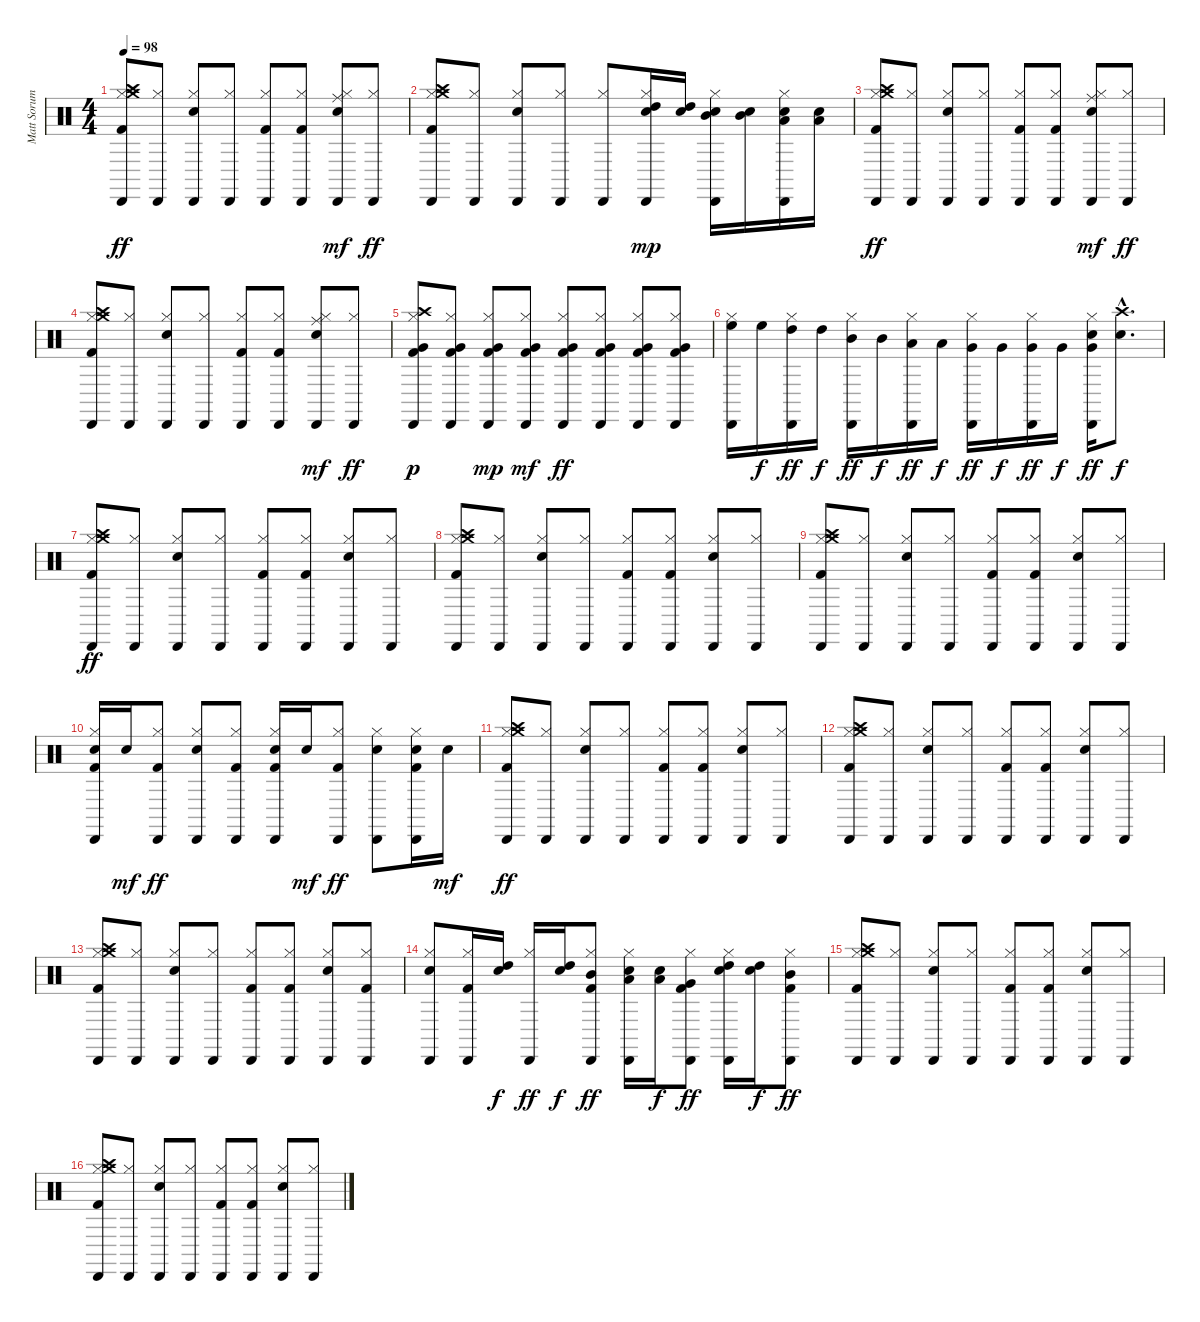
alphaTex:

\track ("Matt Sorum" "Matt Sorum") {instrument percussion}
\staff {score}
\articulation defaults
\ts (4 4)
\tempo 98
\clef neutral
\ks c
("Kick (hit) 2" "Hi-Hat (closed)" "Cabasa (hit)" "Crash medium (hit)" "Crash high (hit)").8{dy ff} ("Hi-Hat (closed)" "Cabasa (hit)").8 ("Snare (hit) 2" "Hi-Hat (closed)" "Cabasa (hit)").8 ("Hi-Hat (closed)" "Cabasa (hit)").8 ("Kick (hit) 2" "Hi-Hat (closed)" "Cabasa (hit)").8 ("Kick (hit) 2" "Hi-Hat (closed)" "Cabasa (hit)").8 ("Snare (hit) 2" "Hi-Hat (closed)" "Cabasa (hit)" "Ride (middle)").8{dy mf} ("Hi-Hat (closed)" "Cabasa (hit)").8{dy ff} |
("Kick (hit) 2" "Hi-Hat (closed)" "Cabasa (hit)" "Crash medium (hit)" "Crash high (hit)").8 ("Hi-Hat (closed)" "Cabasa (hit)").8 ("Snare (hit) 2" "Hi-Hat (closed)" "Cabasa (hit)").8 ("Hi-Hat (closed)" "Cabasa (hit)").8 ("Hi-Hat (closed)" "Cabasa (hit)").8 ("High Tom (hit)" "Hi-Hat (closed)" "Cabasa (hit)" "Snare (hit) 2").16{dy mp} ("High Tom (hit)" "Snare (hit) 2").16 ("Mid Tom (hit)" "Hi-Hat (closed)" "Cabasa (hit)" "Snare (hit) 2").16 ("Mid Tom (hit)" "Snare (hit) 2").16 ("Low Tom (hit)" "Hi-Hat (closed)" "Cabasa (hit)" "Snare (hit) 2").16 ("Low Tom (hit)" "Snare (hit) 2").16 |
("Kick (hit) 2" "Hi-Hat (closed)" "Cabasa (hit)" "Crash medium (hit)" "Crash high (hit)").8{dy ff volume 16} ("Hi-Hat (closed)" "Cabasa (hit)").8 ("Snare (hit) 2" "Hi-Hat (closed)" "Cabasa (hit)").8 ("Hi-Hat (closed)" "Cabasa (hit)").8 ("Kick (hit) 2" "Hi-Hat (closed)" "Cabasa (hit)").8 ("Kick (hit) 2" "Hi-Hat (closed)" "Cabasa (hit)").8 ("Snare (hit) 2" "Hi-Hat (closed)" "Cabasa (hit)" "Ride (middle)").8{dy mf} ("Hi-Hat (closed)" "Cabasa (hit)").8{dy ff} |
("Kick (hit) 2" "Hi-Hat (closed)" "Cabasa (hit)" "Crash medium (hit)" "Crash high (hit)").8 ("Hi-Hat (closed)" "Cabasa (hit)").8 ("Snare (hit) 2" "Hi-Hat (closed)" "Cabasa (hit)").8 ("Hi-Hat (closed)" "Cabasa (hit)").8 ("Kick (hit) 2" "Hi-Hat (closed)" "Cabasa (hit)").8 ("Kick (hit) 2" "Hi-Hat (closed)" "Cabasa (hit)").8 ("Snare (hit) 2" "Hi-Hat (closed)" "Cabasa (hit)" "Ride (middle)").8{dy mf} ("Hi-Hat (closed)" "Cabasa (hit)").8{dy ff} |
("Kick (hit) 2" "Hi-Hat (closed)" "Cabasa (hit)" "Crash high (hit)" "Very Low Tom (hit)").8{dy p} ("Kick (hit) 2" "Hi-Hat (closed)" "Cabasa (hit)" "Very Low Tom (hit)").8 ("Kick (hit) 2" "Hi-Hat (closed)" "Cabasa (hit)" "Very Low Tom (hit)").8{dy mp} ("Kick (hit) 2" "Hi-Hat (closed)" "Cabasa (hit)" "Very Low Tom (hit)").8{dy mf} ("Kick (hit) 2" "Hi-Hat (closed)" "Cabasa (hit)" "Very Low Tom (hit)").8{dy ff} ("Kick (hit) 2" "Hi-Hat (closed)" "Cabasa (hit)" "Very Low Tom (hit)").8 ("Kick (hit) 2" "Hi-Hat (closed)" "Cabasa (hit)" "Very Low Tom (hit)").8 ("Kick (hit) 2" "Hi-Hat (closed)" "Cabasa (hit)" "Very Low Tom (hit)").8 |
("High Floor Tom (hit)" "Hi-Hat (closed)" "Cabasa (hit)").16 "High Floor Tom (hit)".16{dy f} ("High Tom (hit)" "Hi-Hat (closed)" "Cabasa (hit)").16{dy ff} "High Tom (hit)".16{dy f} ("Mid Tom (hit)" "Hi-Hat (closed)" "Cabasa (hit)").16{dy ff} "Mid Tom (hit)".16{dy f} ("Low Tom (hit)" "Hi-Hat (closed)" "Cabasa (hit)").16{dy ff} "Low Tom (hit)".16{dy f} ("Very Low Tom (hit)" "Hi-Hat (closed)" "Cabasa (hit)").16{dy ff} "Very Low Tom (hit)".16{dy f} ("Very Low Tom (hit)" "Hi-Hat (closed)" "Cabasa (hit)").16{dy ff} "Very Low Tom (hit)".16{dy f} ("Snare (hit) 2" "Very Low Tom (hit)" "Hi-Hat (closed)" "Cabasa (hit)").16{dy ff} ("Snare (hit) 2"{hac} "Crash high (hit)"{hac}).8{d dy f} |
("Kick (hit) 2" "Hi-Hat (closed)" "Cabasa (hit)" "Crash medium (hit)" "Crash high (hit)").8{dy ff volume 16} ("Hi-Hat (closed)" "Cabasa (hit)").8 ("Snare (hit) 2" "Hi-Hat (closed)" "Cabasa (hit)").8 ("Hi-Hat (closed)" "Cabasa (hit)").8 ("Kick (hit) 2" "Hi-Hat (closed)" "Cabasa (hit)").8 ("Kick (hit) 2" "Hi-Hat (closed)" "Cabasa (hit)").8 ("Snare (hit) 2" "Hi-Hat (closed)" "Cabasa (hit)").8 ("Hi-Hat (closed)" "Cabasa (hit)").8 |
("Kick (hit) 2" "Hi-Hat (closed)" "Cabasa (hit)" "Crash medium (hit)" "Crash high (hit)").8 ("Hi-Hat (closed)" "Cabasa (hit)").8 ("Snare (hit) 2" "Hi-Hat (closed)" "Cabasa (hit)").8 ("Hi-Hat (closed)" "Cabasa (hit)").8 ("Kick (hit) 2" "Hi-Hat (closed)" "Cabasa (hit)").8 ("Kick (hit) 2" "Hi-Hat (closed)" "Cabasa (hit)").8 ("Snare (hit) 2" "Hi-Hat (closed)" "Cabasa (hit)").8 ("Hi-Hat (closed)" "Cabasa (hit)").8 |
("Kick (hit) 2" "Hi-Hat (closed)" "Cabasa (hit)" "Crash medium (hit)" "Crash high (hit)").8 ("Hi-Hat (closed)" "Cabasa (hit)").8 ("Snare (hit) 2" "Hi-Hat (closed)" "Cabasa (hit)").8 ("Hi-Hat (closed)" "Cabasa (hit)").8 ("Kick (hit) 2" "Hi-Hat (closed)" "Cabasa (hit)").8 ("Kick (hit) 2" "Hi-Hat (closed)" "Cabasa (hit)").8 ("Snare (hit) 2" "Hi-Hat (closed)" "Cabasa (hit)").8 ("Hi-Hat (closed)" "Cabasa (hit)").8 |
("Kick (hit) 2" "Snare (hit) 2" "Hi-Hat (closed)" "Cabasa (hit)").16 "Snare (hit) 2".16{dy mf} ("Kick (hit) 2" "Hi-Hat (closed)" "Cabasa (hit)").8{dy ff} ("Snare (hit) 2" "Hi-Hat (closed)" "Cabasa (hit)").8 ("Kick (hit) 2" "Hi-Hat (closed)" "Cabasa (hit)").8 ("Kick (hit) 2" "Snare (hit) 2" "Hi-Hat (closed)" "Cabasa (hit)").16 "Snare (hit) 2".16{dy mf} ("Kick (hit) 2" "Hi-Hat (closed)" "Cabasa (hit)").8{dy ff} ("Snare (hit) 2" "Hi-Hat (closed)" "Cabasa (hit)").8 ("Kick (hit) 2" "Snare (hit) 2" "Hi-Hat (closed)" "Cabasa (hit)").16 "Snare (hit) 2".16{dy mf} |
("Kick (hit) 2" "Hi-Hat (closed)" "Cabasa (hit)" "Crash medium (hit)" "Crash high (hit)").8{dy ff volume 16} ("Hi-Hat (closed)" "Cabasa (hit)").8 ("Snare (hit) 2" "Hi-Hat (closed)" "Cabasa (hit)").8 ("Hi-Hat (closed)" "Cabasa (hit)").8 ("Kick (hit) 2" "Hi-Hat (closed)" "Cabasa (hit)").8 ("Kick (hit) 2" "Hi-Hat (closed)" "Cabasa (hit)").8 ("Snare (hit) 2" "Hi-Hat (closed)" "Cabasa (hit)").8 ("Hi-Hat (closed)" "Cabasa (hit)").8 |
("Kick (hit) 2" "Hi-Hat (closed)" "Cabasa (hit)" "Crash medium (hit)" "Crash high (hit)").8 ("Hi-Hat (closed)" "Cabasa (hit)").8 ("Snare (hit) 2" "Hi-Hat (closed)" "Cabasa (hit)").8 ("Hi-Hat (closed)" "Cabasa (hit)").8 ("Kick (hit) 2" "Hi-Hat (closed)" "Cabasa (hit)").8 ("Kick (hit) 2" "Hi-Hat (closed)" "Cabasa (hit)").8 ("Snare (hit) 2" "Hi-Hat (closed)" "Cabasa (hit)").8 ("Hi-Hat (closed)" "Cabasa (hit)").8 |
("Kick (hit) 2" "Hi-Hat (closed)" "Cabasa (hit)" "Crash medium (hit)" "Crash high (hit)").8 ("Hi-Hat (closed)" "Cabasa (hit)").8 ("Snare (hit) 2" "Hi-Hat (closed)" "Cabasa (hit)").8 ("Hi-Hat (closed)" "Cabasa (hit)").8 ("Kick (hit) 2" "Hi-Hat (closed)" "Cabasa (hit)").8 ("Kick (hit) 2" "Hi-Hat (closed)" "Cabasa (hit)").8 ("Snare (hit) 2" "Hi-Hat (closed)" "Cabasa (hit)").8 ("Kick (hit) 2" "Hi-Hat (closed)" "Cabasa (hit)").8 |
("Snare (hit) 2" "Hi-Hat (closed)" "Cabasa (hit)").8 ("Kick (hit) 2" "Hi-Hat (closed)" "Cabasa (hit)").16 ("Snare (hit) 2" "High Tom (hit)").16{dy f} ("Hi-Hat (closed)" "Cabasa (hit)").16{dy ff} ("Snare (hit) 2" "High Tom (hit)").16{dy f} ("Kick (hit) 2" "Mid Tom (hit)" "Hi-Hat (closed)" "Cabasa (hit)").8{dy ff} ("Snare (hit) 2" "Low Tom (hit)" "Hi-Hat (closed)" "Cabasa (hit)").16 ("Snare (hit) 2" "Low Tom (hit)").16{dy f} ("Kick (hit) 2" "Very Low Tom (hit)" "Hi-Hat (closed)" "Cabasa (hit)").8{dy ff} ("Snare (hit) 2" "High Tom (hit)" "Hi-Hat (closed)" "Cabasa (hit)").16 ("Snare (hit) 2" "High Tom (hit)").16{dy f} ("Kick (hit) 2" "Mid Tom (hit)" "Hi-Hat (closed)" "Cabasa (hit)").8{dy ff} |
("Kick (hit) 2" "Hi-Hat (closed)" "Cabasa (hit)" "Crash medium (hit)" "Crash high (hit)").8{volume 16} ("Hi-Hat (closed)" "Cabasa (hit)").8 ("Snare (hit) 2" "Hi-Hat (closed)" "Cabasa (hit)").8 ("Hi-Hat (closed)" "Cabasa (hit)").8 ("Kick (hit) 2" "Hi-Hat (closed)" "Cabasa (hit)").8 ("Kick (hit) 2" "Hi-Hat (closed)" "Cabasa (hit)").8 ("Snare (hit) 2" "Hi-Hat (closed)" "Cabasa (hit)").8 ("Hi-Hat (closed)" "Cabasa (hit)").8 |
("Kick (hit) 2" "Hi-Hat (closed)" "Cabasa (hit)" "Crash medium (hit)" "Crash high (hit)").8 ("Hi-Hat (closed)" "Cabasa (hit)").8 ("Snare (hit) 2" "Hi-Hat (closed)" "Cabasa (hit)").8 ("Hi-Hat (closed)" "Cabasa (hit)").8 ("Kick (hit) 2" "Hi-Hat (closed)" "Cabasa (hit)").8 ("Kick (hit) 2" "Hi-Hat (closed)" "Cabasa (hit)").8 ("Snare (hit) 2" "Hi-Hat (closed)" "Cabasa (hit)").8 ("Hi-Hat (closed)" "Cabasa (hit)").8
